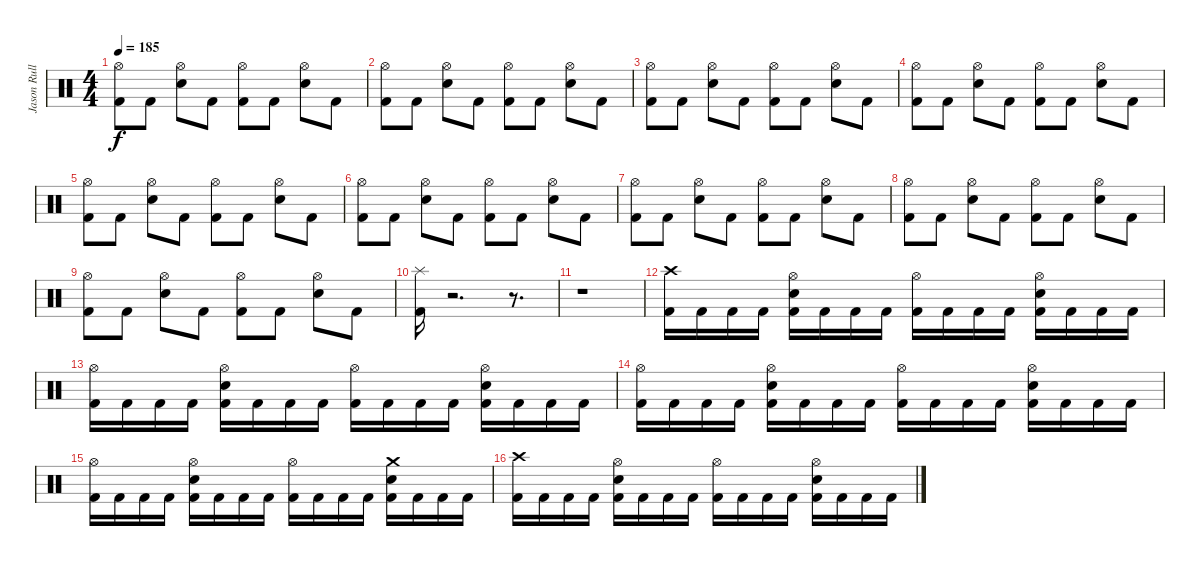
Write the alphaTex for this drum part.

\track ("Jason Rullo" "Jason Rull") {instrument percussion}
\staff {score}
\articulation defaults
\ts (4 4)
\tempo 185
\clef neutral
\ks c
("Hi-Hat (open)" "Kick (hit) 2").8{dy f} "Kick (hit) 2".8 ("Hi-Hat (open)" "Snare (hit) 2").8 "Kick (hit) 2".8 ("Hi-Hat (open)" "Kick (hit) 2").8 "Kick (hit) 2".8 ("Hi-Hat (open)" "Snare (hit) 2").8 "Kick (hit) 2".8 |
("Hi-Hat (open)" "Kick (hit) 2").8 "Kick (hit) 2".8 ("Hi-Hat (open)" "Snare (hit) 2").8 "Kick (hit) 2".8 ("Hi-Hat (open)" "Kick (hit) 2").8 "Kick (hit) 2".8 ("Hi-Hat (open)" "Snare (hit) 2").8 "Kick (hit) 2".8 |
("Hi-Hat (open)" "Kick (hit) 2").8 "Kick (hit) 2".8 ("Hi-Hat (open)" "Snare (hit) 2").8 "Kick (hit) 2".8 ("Hi-Hat (open)" "Kick (hit) 2").8 "Kick (hit) 2".8 ("Hi-Hat (open)" "Snare (hit) 2").8 "Kick (hit) 2".8 |
("Hi-Hat (open)" "Kick (hit) 2").8 "Kick (hit) 2".8 ("Hi-Hat (open)" "Snare (hit) 2").8 "Kick (hit) 2".8 ("Hi-Hat (open)" "Kick (hit) 2").8 "Kick (hit) 2".8 ("Hi-Hat (open)" "Snare (hit) 2").8 "Kick (hit) 2".8 |
("Hi-Hat (open)" "Kick (hit) 2").8 "Kick (hit) 2".8 ("Hi-Hat (open)" "Snare (hit) 2").8 "Kick (hit) 2".8 ("Hi-Hat (open)" "Kick (hit) 2").8 "Kick (hit) 2".8 ("Hi-Hat (open)" "Snare (hit) 2").8 "Kick (hit) 2".8 |
("Hi-Hat (open)" "Kick (hit) 2").8 "Kick (hit) 2".8 ("Hi-Hat (open)" "Snare (hit) 2").8 "Kick (hit) 2".8 ("Hi-Hat (open)" "Kick (hit) 2").8 "Kick (hit) 2".8 ("Hi-Hat (open)" "Snare (hit) 2").8 "Kick (hit) 2".8 |
("Hi-Hat (open)" "Kick (hit) 2").8 "Kick (hit) 2".8 ("Hi-Hat (open)" "Snare (hit) 2").8 "Kick (hit) 2".8 ("Hi-Hat (open)" "Kick (hit) 2").8 "Kick (hit) 2".8 ("Hi-Hat (open)" "Snare (hit) 2").8 "Kick (hit) 2".8 |
("Hi-Hat (open)" "Kick (hit) 2").8 "Kick (hit) 2".8 ("Hi-Hat (open)" "Snare (hit) 2").8 "Kick (hit) 2".8 ("Hi-Hat (open)" "Kick (hit) 2").8 "Kick (hit) 2".8 ("Hi-Hat (open)" "Snare (hit) 2").8 "Kick (hit) 2".8 |
("Hi-Hat (open)" "Kick (hit) 2").8 "Kick (hit) 2".8 ("Hi-Hat (open)" "Snare (hit) 2").8 "Kick (hit) 2".8 ("Hi-Hat (open)" "Kick (hit) 2").8 "Kick (hit) 2".8 ("Hi-Hat (open)" "Snare (hit) 2").8 "Kick (hit) 2".8 |
("Splash (hit)" "Kick (hit) 2").16 r.2{d} r.8{d} |
r.1 |
("Crash high (hit)" "Kick (hit) 2").16 "Kick (hit) 2".16 "Kick (hit) 2".16 "Kick (hit) 2".16 ("Hi-Hat (open)" "Snare (hit) 2" "Kick (hit) 2").16 "Kick (hit) 2".16 "Kick (hit) 2".16 "Kick (hit) 2".16 ("Hi-Hat (open)" "Kick (hit) 2").16 "Kick (hit) 2".16 "Kick (hit) 2".16 "Kick (hit) 2".16 ("Hi-Hat (open)" "Snare (hit) 2" "Kick (hit) 2").16 "Kick (hit) 2".16 "Kick (hit) 2".16 "Kick (hit) 2".16 |
("Hi-Hat (open)" "Kick (hit) 2").16 "Kick (hit) 2".16 "Kick (hit) 2".16 "Kick (hit) 2".16 ("Hi-Hat (open)" "Snare (hit) 2" "Kick (hit) 2").16 "Kick (hit) 2".16 "Kick (hit) 2".16 "Kick (hit) 2".16 ("Hi-Hat (open)" "Kick (hit) 2").16 "Kick (hit) 2".16 "Kick (hit) 2".16 "Kick (hit) 2".16 ("Hi-Hat (open)" "Snare (hit) 2" "Kick (hit) 2").16 "Kick (hit) 2".16 "Kick (hit) 2".16 "Kick (hit) 2".16 |
("Hi-Hat (open)" "Kick (hit) 2").16 "Kick (hit) 2".16 "Kick (hit) 2".16 "Kick (hit) 2".16 ("Hi-Hat (open)" "Snare (hit) 2" "Kick (hit) 2").16 "Kick (hit) 2".16 "Kick (hit) 2".16 "Kick (hit) 2".16 ("Hi-Hat (open)" "Kick (hit) 2").16 "Kick (hit) 2".16 "Kick (hit) 2".16 "Kick (hit) 2".16 ("Hi-Hat (open)" "Snare (hit) 2" "Kick (hit) 2").16 "Kick (hit) 2".16 "Kick (hit) 2".16 "Kick (hit) 2".16 |
("Hi-Hat (open)" "Kick (hit) 2").16 "Kick (hit) 2".16 "Kick (hit) 2".16 "Kick (hit) 2".16 ("Hi-Hat (open)" "Snare (hit) 2" "Kick (hit) 2").16 "Kick (hit) 2".16 "Kick (hit) 2".16 "Kick (hit) 2".16 ("Hi-Hat (open)" "Kick (hit) 2").16 "Kick (hit) 2".16 "Kick (hit) 2".16 "Kick (hit) 2".16 ("Crash medium (hit)" "Snare (hit) 2" "Kick (hit) 2").16 "Kick (hit) 2".16 "Kick (hit) 2".16 "Kick (hit) 2".16 |
("Crash high (hit)" "Kick (hit) 2").16 "Kick (hit) 2".16 "Kick (hit) 2".16 "Kick (hit) 2".16 ("Hi-Hat (open)" "Snare (hit) 2" "Kick (hit) 2").16 "Kick (hit) 2".16 "Kick (hit) 2".16 "Kick (hit) 2".16 ("Hi-Hat (open)" "Kick (hit) 2").16 "Kick (hit) 2".16 "Kick (hit) 2".16 "Kick (hit) 2".16 ("Hi-Hat (open)" "Snare (hit) 2" "Kick (hit) 2").16 "Kick (hit) 2".16 "Kick (hit) 2".16 "Kick (hit) 2".16
